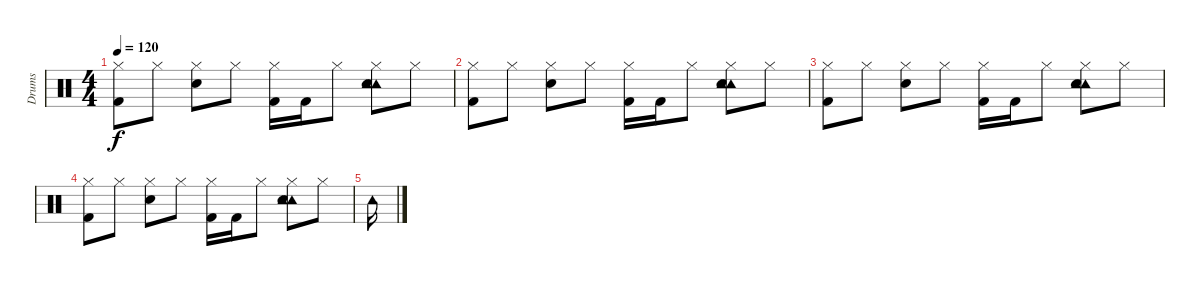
\track ("Drums" "Drums") {instrument percussion}
\staff {score}
\articulation defaults
\ts (4 4)
\tempo 120
\clef neutral
\ks c
("Hi-Hat (closed)" "Kick (hit) 2").8{dy f} "Hi-Hat (closed)".8 ("Hi-Hat (closed)" "Snare (hit) 2").8 "Hi-Hat (closed)".8 ("Hi-Hat (closed)" "Kick (hit) 2").16 "Kick (hit) 2".16 "Hi-Hat (closed)".8 ("Tambourine (hit)" "Tambourine (hit)" "Hi-Hat (closed)" "Snare (hit) 2").8 "Hi-Hat (closed)".8 |
("Hi-Hat (closed)" "Kick (hit) 2").8 "Hi-Hat (closed)".8 ("Hi-Hat (closed)" "Snare (hit) 2").8 "Hi-Hat (closed)".8 ("Hi-Hat (closed)" "Kick (hit) 2").16 "Kick (hit) 2".16 "Hi-Hat (closed)".8 ("Tambourine (hit)" "Tambourine (hit)" "Hi-Hat (closed)" "Snare (hit) 2").8 "Hi-Hat (closed)".8 |
("Hi-Hat (closed)" "Kick (hit) 2").8 "Hi-Hat (closed)".8 ("Hi-Hat (closed)" "Snare (hit) 2").8 "Hi-Hat (closed)".8 ("Hi-Hat (closed)" "Kick (hit) 2").16 "Kick (hit) 2".16 "Hi-Hat (closed)".8 ("Tambourine (hit)" "Tambourine (hit)" "Hi-Hat (closed)" "Snare (hit) 2").8 "Hi-Hat (closed)".8 |
("Hi-Hat (closed)" "Kick (hit) 2").8 "Hi-Hat (closed)".8 ("Hi-Hat (closed)" "Snare (hit) 2").8 "Hi-Hat (closed)".8 ("Hi-Hat (closed)" "Kick (hit) 2").16 "Kick (hit) 2".16 "Hi-Hat (closed)".8 ("Tambourine (hit)" "Tambourine (hit)" "Hi-Hat (closed)" "Snare (hit) 2").8 "Hi-Hat (closed)".8 |
"Tambourine (hit)".16
